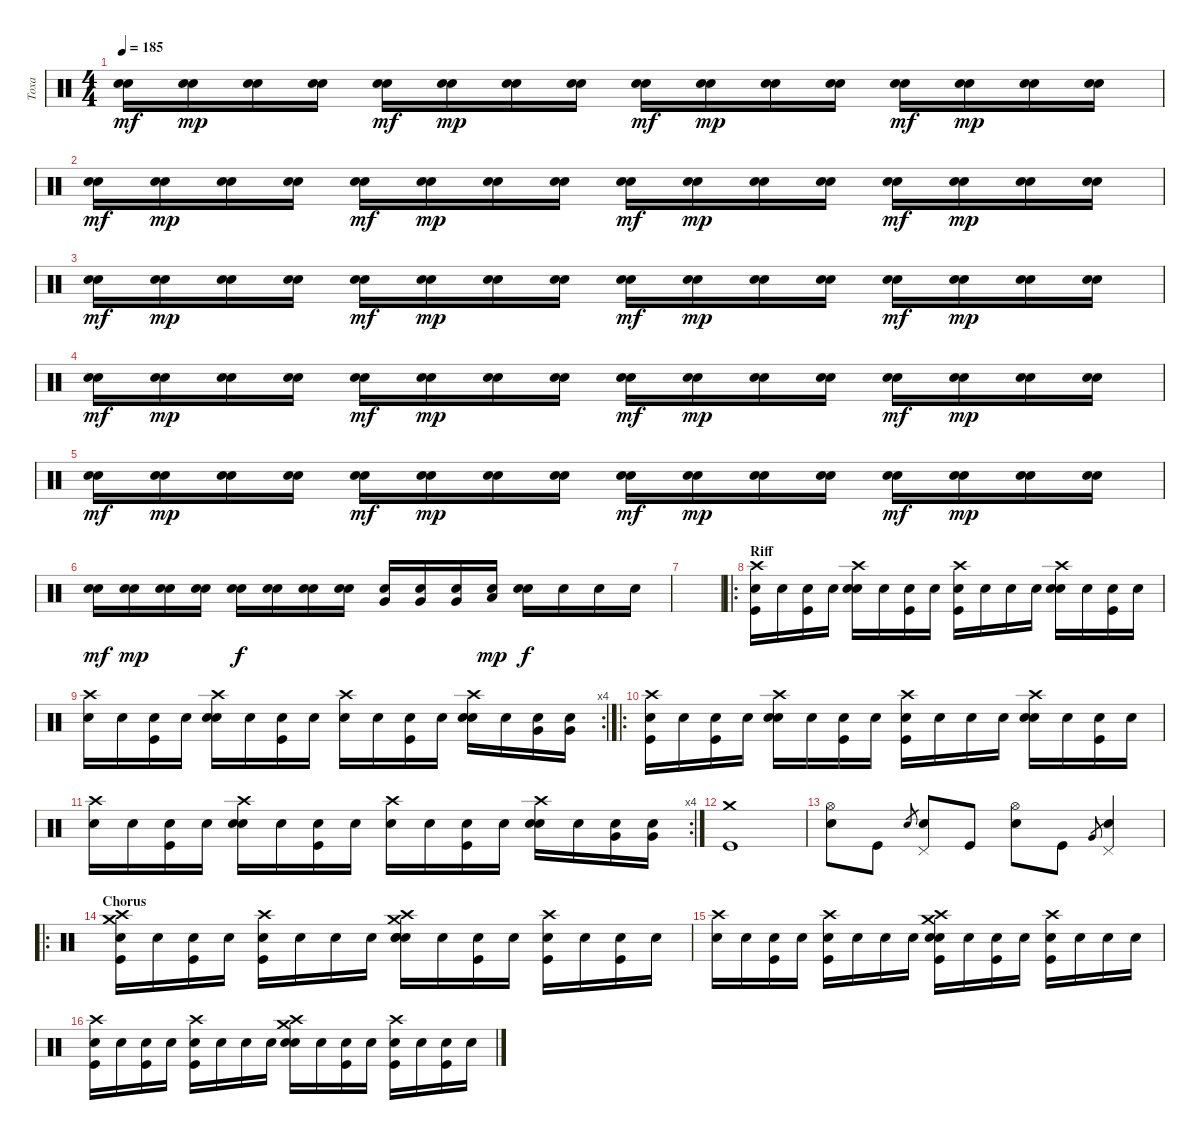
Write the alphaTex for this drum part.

\track ("Toxa" "Toxa") {instrument percussion}
\staff {score}
\articulation defaults
\ts (4 4)
\tempo 185
\clef neutral
\ks c
("Electric Snare (hit)" "Snare (hit)"{x}).16{dy mf} ("Electric Snare (hit)" "Snare (hit)"{x}).16{dy mp} ("Electric Snare (hit)" "Snare (hit)"{x}).16 ("Electric Snare (hit)" "Snare (hit)"{x}).16 ("Electric Snare (hit)" "Snare (hit)"{x}).16{dy mf} ("Electric Snare (hit)" "Snare (hit)"{x}).16{dy mp} ("Electric Snare (hit)" "Snare (hit)"{x}).16 ("Electric Snare (hit)" "Snare (hit)"{x}).16 ("Electric Snare (hit)" "Snare (hit)"{x}).16{dy mf} ("Electric Snare (hit)" "Snare (hit)"{x}).16{dy mp} ("Electric Snare (hit)" "Snare (hit)"{x}).16 ("Electric Snare (hit)" "Snare (hit)"{x}).16 ("Electric Snare (hit)" "Snare (hit)"{x}).16{dy mf} ("Electric Snare (hit)" "Snare (hit)"{x}).16{dy mp} ("Electric Snare (hit)" "Snare (hit)"{x}).16 ("Electric Snare (hit)" "Snare (hit)"{x}).16 |
("Electric Snare (hit)" "Snare (hit)"{x}).16{dy mf} ("Electric Snare (hit)" "Snare (hit)"{x}).16{dy mp} ("Electric Snare (hit)" "Snare (hit)"{x}).16 ("Electric Snare (hit)" "Snare (hit)"{x}).16 ("Electric Snare (hit)" "Snare (hit)"{x}).16{dy mf} ("Electric Snare (hit)" "Snare (hit)"{x}).16{dy mp} ("Electric Snare (hit)" "Snare (hit)"{x}).16 ("Electric Snare (hit)" "Snare (hit)"{x}).16 ("Electric Snare (hit)" "Snare (hit)"{x}).16{dy mf} ("Electric Snare (hit)" "Snare (hit)"{x}).16{dy mp} ("Electric Snare (hit)" "Snare (hit)"{x}).16 ("Electric Snare (hit)" "Snare (hit)"{x}).16 ("Electric Snare (hit)" "Snare (hit)"{x}).16{dy mf} ("Electric Snare (hit)" "Snare (hit)"{x}).16{dy mp} ("Electric Snare (hit)" "Snare (hit)"{x}).16 ("Electric Snare (hit)" "Snare (hit)"{x}).16 |
("Electric Snare (hit)" "Snare (hit)"{x}).16{dy mf} ("Electric Snare (hit)" "Snare (hit)"{x}).16{dy mp} ("Electric Snare (hit)" "Snare (hit)"{x}).16 ("Electric Snare (hit)" "Snare (hit)"{x}).16 ("Electric Snare (hit)" "Snare (hit)"{x}).16{dy mf} ("Electric Snare (hit)" "Snare (hit)"{x}).16{dy mp} ("Electric Snare (hit)" "Snare (hit)"{x}).16 ("Electric Snare (hit)" "Snare (hit)"{x}).16 ("Electric Snare (hit)" "Snare (hit)"{x}).16{dy mf} ("Electric Snare (hit)" "Snare (hit)"{x}).16{dy mp} ("Electric Snare (hit)" "Snare (hit)"{x}).16 ("Electric Snare (hit)" "Snare (hit)"{x}).16 ("Electric Snare (hit)" "Snare (hit)"{x}).16{dy mf} ("Electric Snare (hit)" "Snare (hit)"{x}).16{dy mp} ("Electric Snare (hit)" "Snare (hit)"{x}).16 ("Electric Snare (hit)" "Snare (hit)"{x}).16 |
("Electric Snare (hit)" "Snare (hit)"{x}).16{dy mf} ("Electric Snare (hit)" "Snare (hit)"{x}).16{dy mp} ("Electric Snare (hit)" "Snare (hit)"{x}).16 ("Electric Snare (hit)" "Snare (hit)"{x}).16 ("Electric Snare (hit)" "Snare (hit)"{x}).16{dy mf} ("Electric Snare (hit)" "Snare (hit)"{x}).16{dy mp} ("Electric Snare (hit)" "Snare (hit)"{x}).16 ("Electric Snare (hit)" "Snare (hit)"{x}).16 ("Electric Snare (hit)" "Snare (hit)"{x}).16{dy mf} ("Electric Snare (hit)" "Snare (hit)"{x}).16{dy mp} ("Electric Snare (hit)" "Snare (hit)"{x}).16 ("Electric Snare (hit)" "Snare (hit)"{x}).16 ("Electric Snare (hit)" "Snare (hit)"{x}).16{dy mf} ("Electric Snare (hit)" "Snare (hit)"{x}).16{dy mp} ("Electric Snare (hit)" "Snare (hit)"{x}).16 ("Electric Snare (hit)" "Snare (hit)"{x}).16 |
("Electric Snare (hit)" "Snare (hit)"{x}).16{dy mf} ("Electric Snare (hit)" "Snare (hit)"{x}).16{dy mp} ("Electric Snare (hit)" "Snare (hit)"{x}).16 ("Electric Snare (hit)" "Snare (hit)"{x}).16 ("Electric Snare (hit)" "Snare (hit)"{x}).16{dy mf} ("Electric Snare (hit)" "Snare (hit)"{x}).16{dy mp} ("Electric Snare (hit)" "Snare (hit)"{x}).16 ("Electric Snare (hit)" "Snare (hit)"{x}).16 ("Electric Snare (hit)" "Snare (hit)"{x}).16{dy mf} ("Electric Snare (hit)" "Snare (hit)"{x}).16{dy mp} ("Electric Snare (hit)" "Snare (hit)"{x}).16 ("Electric Snare (hit)" "Snare (hit)"{x}).16 ("Electric Snare (hit)" "Snare (hit)"{x}).16{dy mf} ("Electric Snare (hit)" "Snare (hit)"{x}).16{dy mp} ("Electric Snare (hit)" "Snare (hit)"{x}).16 ("Electric Snare (hit)" "Snare (hit)"{x}).16 |
("Electric Snare (hit)" "Snare (hit)"{x}).16{dy mf} ("Electric Snare (hit)" "Snare (hit)"{x}).16{dy mp} ("Electric Snare (hit)" "Snare (hit)"{x}).16 ("Electric Snare (hit)" "Snare (hit)"{x}).16 ("Electric Snare (hit)" "Snare (hit)"{x}).16{dy f} ("Electric Snare (hit)" "Snare (hit)"{x}).16 ("Electric Snare (hit)" "Snare (hit)"{x}).16 ("Electric Snare (hit)" "Snare (hit)"{x}).16 ("Very Low Tom (hit)" "Snare (hit)"{x}).16 ("Very Low Tom (hit)" "Snare (hit)"{x}).16 ("Very Low Tom (hit)" "Snare (hit)"{x}).16 ("Low Floor Tom (hit)" "Snare (hit)"{x}).16{dy mp} ("Electric Snare (hit)" "Snare (hit)"{x}).16{dy f} "Snare (hit)"{x}.16 "Snare (hit)"{x}.16 "Snare (hit)"{x}.16 |
|
\ro
\section ("" "Riff")
("Snare (hit)"{x} "Kick (hit)" "Crash high (hit)").16 "Snare (hit)"{x}.16 ("Snare (hit)"{x} "Kick (hit)").16 "Snare (hit)"{x}.16 ("Snare (hit)"{x} "Electric Snare (hit)" "Crash high (hit)").16 "Snare (hit)"{x}.16 ("Snare (hit)"{x} "Kick (hit)").16 "Snare (hit)"{x}.16 ("Snare (hit)"{x} "Kick (hit)" "Crash high (hit)").16 "Snare (hit)"{x}.16 "Snare (hit)"{x}.16 "Snare (hit)"{x}.16 ("Snare (hit)"{x} "Electric Snare (hit)" "Crash high (hit)").16 "Snare (hit)"{x}.16 ("Snare (hit)"{x} "Kick (hit)").16 "Snare (hit)"{x}.16 |
\rc 4
("Snare (hit)"{x} "Crash high (hit)").16 "Snare (hit)"{x}.16 ("Snare (hit)"{x} "Kick (hit)").16 "Snare (hit)"{x}.16 ("Snare (hit)"{x} "Electric Snare (hit)" "Crash high (hit)").16 "Snare (hit)"{x}.16 ("Snare (hit)"{x} "Kick (hit)").16 "Snare (hit)"{x}.16 ("Snare (hit)"{x} "Crash high (hit)").16 "Snare (hit)"{x}.16 ("Snare (hit)"{x} "Kick (hit)").16 "Snare (hit)"{x}.16 ("Snare (hit)"{x} "Electric Snare (hit)" "Crash high (hit)").16 "Snare (hit)"{x}.16 ("Snare (hit)"{x} "Very Low Tom (hit)").16 ("Snare (hit)"{x} "Very Low Tom (hit)").16 |
\ro
("Snare (hit)"{x} "Kick (hit)" "Crash high (hit)").16 "Snare (hit)"{x}.16 ("Snare (hit)"{x} "Kick (hit)").16 "Snare (hit)"{x}.16 ("Snare (hit)"{x} "Electric Snare (hit)" "Crash high (hit)").16 "Snare (hit)"{x}.16 ("Snare (hit)"{x} "Kick (hit)").16 "Snare (hit)"{x}.16 ("Snare (hit)"{x} "Kick (hit)" "Crash high (hit)").16 "Snare (hit)"{x}.16 "Snare (hit)"{x}.16 "Snare (hit)"{x}.16 ("Snare (hit)"{x} "Electric Snare (hit)" "Crash high (hit)").16 "Snare (hit)"{x}.16 ("Snare (hit)"{x} "Kick (hit)").16 "Snare (hit)"{x}.16 |
\rc 4
("Snare (hit)"{x} "Crash high (hit)").16 "Snare (hit)"{x}.16 ("Snare (hit)"{x} "Kick (hit)").16 "Snare (hit)"{x}.16 ("Snare (hit)"{x} "Electric Snare (hit)" "Crash high (hit)").16 "Snare (hit)"{x}.16 ("Snare (hit)"{x} "Kick (hit)").16 "Snare (hit)"{x}.16 ("Snare (hit)"{x} "Crash high (hit)").16 "Snare (hit)"{x}.16 ("Snare (hit)"{x} "Kick (hit)").16 "Snare (hit)"{x}.16 ("Snare (hit)"{x} "Electric Snare (hit)" "Crash high (hit)").16 "Snare (hit)"{x}.16 ("Snare (hit)"{x} "Very Low Tom (hit)").16 ("Snare (hit)"{x} "Very Low Tom (hit)").16 |
("Crash medium (hit)" "Kick (hit)").1 |
("Electric Snare (hit)" "Hi-Hat (open)").8 "Kick (hit)".8 "Electric Snare (hit)".8{gr} ("Electric Snare (hit)" "Pedal Hi-Hat (hit)").8 "Kick (hit)".8 ("Electric Snare (hit)" "Hi-Hat (open)").8 "Kick (hit)".8 "Very Low Tom (hit)".8{gr} ("Electric Snare (hit)" "Pedal Hi-Hat (hit)").4 |
\ro
\section ("" "Chorus")
("Snare (hit)"{x} "Kick (hit)" "Crash medium (hit)" "Crash high (hit)").16 "Snare (hit)"{x}.16 ("Snare (hit)"{x} "Kick (hit)").16 "Snare (hit)"{x}.16 ("Snare (hit)"{x} "Kick (hit)" "Crash high (hit)").16 "Snare (hit)"{x}.16 "Snare (hit)"{x}.16 "Snare (hit)"{x}.16 ("Snare (hit)"{x} "Crash medium (hit)" "Electric Snare (hit)" "Snare (hit) 2" "Crash high (hit)").16 "Snare (hit)"{x}.16 ("Snare (hit)"{x} "Kick (hit)").16 "Snare (hit)"{x}.16 ("Snare (hit)"{x} "Kick (hit)" "Crash high (hit)").16 "Snare (hit)"{x}.16 ("Snare (hit)"{x} "Kick (hit)").16 "Snare (hit)"{x}.16 |
("Snare (hit)"{x} "Crash high (hit)").16 "Snare (hit)"{x}.16 ("Snare (hit)"{x} "Kick (hit)").16 "Snare (hit)"{x}.16 ("Snare (hit)"{x} "Kick (hit)" "Crash high (hit)").16 "Snare (hit)"{x}.16 "Snare (hit)"{x}.16 "Snare (hit)"{x}.16 ("Snare (hit)"{x} "Electric Snare (hit)" "Crash medium (hit)" "Kick (hit)" "Crash high (hit)").16 "Snare (hit)"{x}.16 ("Snare (hit)"{x} "Kick (hit)").16 "Snare (hit)"{x}.16 ("Snare (hit)"{x} "Kick (hit)" "Crash high (hit)").16 "Snare (hit)"{x}.16 "Snare (hit)"{x}.16 "Snare (hit)"{x}.16 |
("Snare (hit)"{x} "Kick (hit)" "Crash high (hit)").16 "Snare (hit)"{x}.16 ("Snare (hit)"{x} "Kick (hit)").16 "Snare (hit)"{x}.16 ("Snare (hit)"{x} "Kick (hit)" "Crash high (hit)").16 "Snare (hit)"{x}.16 "Snare (hit)"{x}.16 "Snare (hit)"{x}.16 ("Crash medium (hit)" "Electric Snare (hit)" "Snare (hit) 2" "Crash high (hit)").16 "Snare (hit)"{x}.16 ("Snare (hit)"{x} "Kick (hit)").16 "Snare (hit)"{x}.16 ("Snare (hit)"{x} "Kick (hit)" "Crash high (hit)").16 "Snare (hit)"{x}.16 ("Snare (hit)"{x} "Kick (hit)").16 "Snare (hit)"{x}.16
